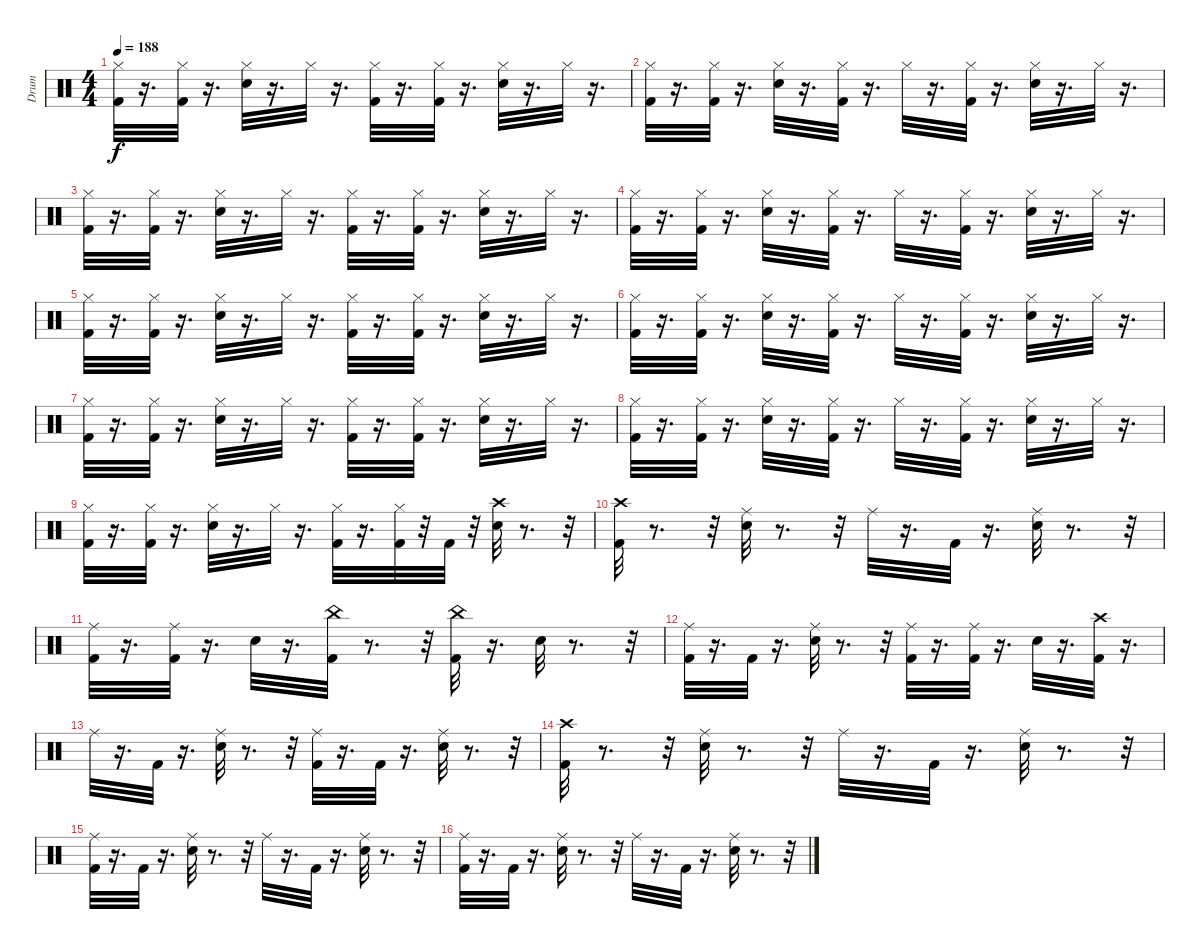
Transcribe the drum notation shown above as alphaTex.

\track ("Drum" "Drum") {instrument percussion}
\staff {score}
\articulation defaults
\ts (4 4)
\tempo 188
\clef neutral
\ks c
("Hi-Hat (closed)" "Kick (hit) 2").32{dy f} r.16{d} ("Hi-Hat (closed)" "Kick (hit) 2").32 r.16{d} ("Hi-Hat (closed)" "Snare (hit) 2").32 r.16{d} "Hi-Hat (closed)".32 r.16{d} ("Hi-Hat (closed)" "Kick (hit) 2").32 r.16{d} ("Hi-Hat (closed)" "Kick (hit) 2").32 r.16{d} ("Hi-Hat (closed)" "Snare (hit) 2").32 r.16{d} "Hi-Hat (closed)".32 r.16{d} |
("Hi-Hat (closed)" "Kick (hit) 2").32 r.16{d} ("Hi-Hat (closed)" "Kick (hit) 2").32 r.16{d} ("Hi-Hat (closed)" "Snare (hit) 2").32 r.16{d} ("Hi-Hat (closed)" "Kick (hit) 2").32 r.16{d} "Hi-Hat (closed)".32 r.16{d} ("Hi-Hat (closed)" "Kick (hit) 2").32 r.16{d} ("Hi-Hat (closed)" "Snare (hit) 2").32 r.16{d} "Hi-Hat (closed)".32 r.16{d} |
("Hi-Hat (closed)" "Kick (hit) 2").32 r.16{d} ("Hi-Hat (closed)" "Kick (hit) 2").32 r.16{d} ("Hi-Hat (closed)" "Snare (hit) 2").32 r.16{d} "Hi-Hat (closed)".32 r.16{d} ("Hi-Hat (closed)" "Kick (hit) 2").32 r.16{d} ("Hi-Hat (closed)" "Kick (hit) 2").32 r.16{d} ("Hi-Hat (closed)" "Snare (hit) 2").32 r.16{d} "Hi-Hat (closed)".32 r.16{d} |
("Hi-Hat (closed)" "Kick (hit) 2").32 r.16{d} ("Hi-Hat (closed)" "Kick (hit) 2").32 r.16{d} ("Hi-Hat (closed)" "Snare (hit) 2").32 r.16{d} ("Hi-Hat (closed)" "Kick (hit) 2").32 r.16{d} "Hi-Hat (closed)".32 r.16{d} ("Hi-Hat (closed)" "Kick (hit) 2").32 r.16{d} ("Hi-Hat (closed)" "Snare (hit) 2").32 r.16{d} "Hi-Hat (closed)".32 r.16{d} |
("Hi-Hat (closed)" "Kick (hit) 2").32 r.16{d} ("Hi-Hat (closed)" "Kick (hit) 2").32 r.16{d} ("Hi-Hat (closed)" "Snare (hit) 2").32 r.16{d} "Hi-Hat (closed)".32 r.16{d} ("Hi-Hat (closed)" "Kick (hit) 2").32 r.16{d} ("Hi-Hat (closed)" "Kick (hit) 2").32 r.16{d} ("Hi-Hat (closed)" "Snare (hit) 2").32 r.16{d} "Hi-Hat (closed)".32 r.16{d} |
("Hi-Hat (closed)" "Kick (hit) 2").32 r.16{d} ("Hi-Hat (closed)" "Kick (hit) 2").32 r.16{d} ("Hi-Hat (closed)" "Snare (hit) 2").32 r.16{d} ("Hi-Hat (closed)" "Kick (hit) 2").32 r.16{d} "Hi-Hat (closed)".32 r.16{d} ("Hi-Hat (closed)" "Kick (hit) 2").32 r.16{d} ("Hi-Hat (closed)" "Snare (hit) 2").32 r.16{d} "Hi-Hat (closed)".32 r.16{d} |
("Hi-Hat (closed)" "Kick (hit) 2").32 r.16{d} ("Hi-Hat (closed)" "Kick (hit) 2").32 r.16{d} ("Hi-Hat (closed)" "Snare (hit) 2").32 r.16{d} "Hi-Hat (closed)".32 r.16{d} ("Hi-Hat (closed)" "Kick (hit) 2").32 r.16{d} ("Hi-Hat (closed)" "Kick (hit) 2").32 r.16{d} ("Hi-Hat (closed)" "Snare (hit) 2").32 r.16{d} "Hi-Hat (closed)".32 r.16{d} |
("Hi-Hat (closed)" "Kick (hit) 2").32 r.16{d} ("Hi-Hat (closed)" "Kick (hit) 2").32 r.16{d} ("Hi-Hat (closed)" "Snare (hit) 2").32 r.16{d} ("Hi-Hat (closed)" "Kick (hit) 2").32 r.16{d} "Hi-Hat (closed)".32 r.16{d} ("Hi-Hat (closed)" "Kick (hit) 2").32 r.16{d} ("Hi-Hat (closed)" "Snare (hit) 2").32 r.16{d} "Hi-Hat (closed)".32 r.16{d} |
("Hi-Hat (closed)" "Kick (hit) 2").32 r.16{d} ("Hi-Hat (closed)" "Kick (hit) 2").32 r.16{d} ("Hi-Hat (closed)" "Snare (hit) 2").32 r.16{d} "Hi-Hat (closed)".32 r.16{d} ("Hi-Hat (closed)" "Kick (hit) 2").32 r.16{d} ("Hi-Hat (closed)" "Kick (hit) 2").32 r.32 "Kick (hit) 2".32 r.32 ("Crash high (hit)" "Snare (hit) 2").32 r.8{d} r.32 |
("Crash high (hit)" "Kick (hit) 2").32 r.8{d} r.32 ("Ride (middle)" "Snare (hit) 2").32 r.8{d} r.32 "Ride (middle)".32 r.16{d} "Kick (hit) 2".32 r.16{d} ("Ride (middle)" "Snare (hit) 2").32 r.8{d} r.32 |
("Ride (middle)" "Kick (hit) 2").32 r.16{d} ("Ride (middle)" "Kick (hit) 2").32 r.16{d} "Snare (hit) 2".32 r.16{d} ("Kick (hit) 2" "China (hit)").32 r.8{d} r.32 ("Kick (hit) 2" "China (hit)").32 r.16{d} "Snare (hit) 2".32 r.8{d} r.32 |
("Ride (middle)" "Kick (hit) 2").32 r.16{d} "Kick (hit) 2".32 r.16{d} ("Ride (middle)" "Snare (hit) 2").32 r.8{d} r.32 ("Ride (middle)" "Kick (hit) 2").32 r.16{d} ("Ride (middle)" "Kick (hit) 2").32 r.16{d} "Snare (hit) 2".32 r.16{d} ("Crash high (hit)" "Kick (hit) 2").32 r.16{d} |
"Ride (middle)".32 r.16{d} "Kick (hit) 2".32 r.16{d} ("Ride (middle)" "Snare (hit) 2").32 r.8{d} r.32 ("Ride (middle)" "Kick (hit) 2").32 r.16{d} "Kick (hit) 2".32 r.16{d} ("Ride (middle)" "Snare (hit) 2").32 r.8{d} r.32 |
("Crash high (hit)" "Kick (hit) 2").32 r.8{d} r.32 ("Ride (middle)" "Snare (hit) 2").32 r.8{d} r.32 "Ride (middle)".32 r.16{d} "Kick (hit) 2".32 r.16{d} ("Ride (middle)" "Snare (hit) 2").32 r.8{d} r.32 |
("Ride (middle)" "Kick (hit) 2").32 r.16{d} "Kick (hit) 2".32 r.16{d} ("Ride (middle)" "Snare (hit) 2").32 r.8{d} r.32 "Ride (middle)".32 r.16{d} "Kick (hit) 2".32 r.16{d} ("Ride (middle)" "Snare (hit) 2").32 r.8{d} r.32 |
("Ride (middle)" "Kick (hit) 2").32 r.16{d} "Kick (hit) 2".32 r.16{d} ("Ride (middle)" "Snare (hit) 2").32 r.8{d} r.32 "Ride (middle)".32 r.16{d} "Kick (hit) 2".32 r.16{d} ("Ride (middle)" "Snare (hit) 2").32 r.8{d} r.32
